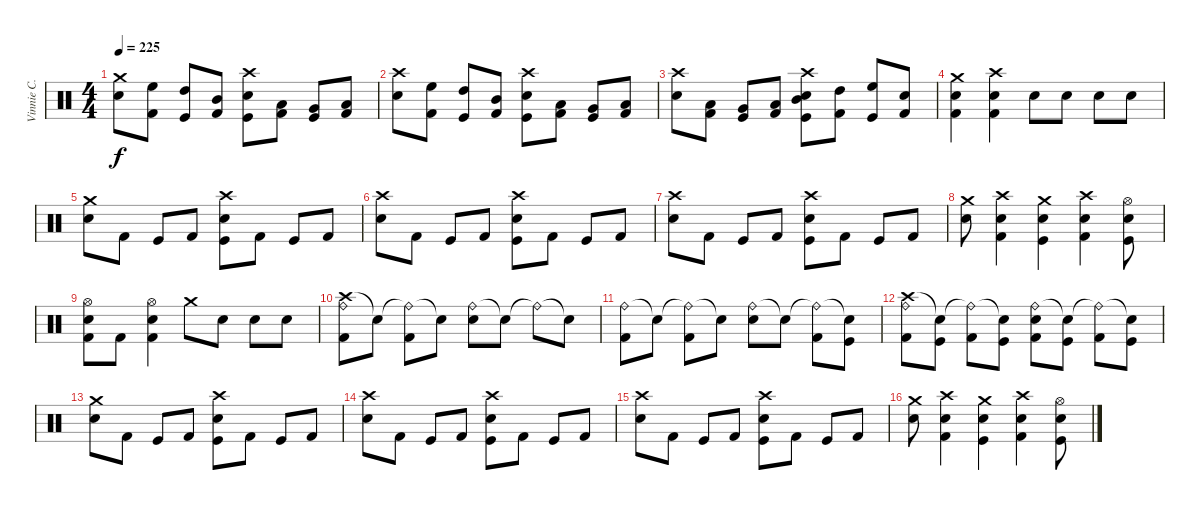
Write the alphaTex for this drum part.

\track ("Vinnie C." "Vinnie C.") {instrument percussion}
\staff {score}
\articulation defaults
\ts (4 4)
\tempo 225
\clef neutral
\ks c
("Crash medium (hit)" "Electric Snare (hit)").8{dy f} ("High Floor Tom (hit)" "Kick (hit) 2").8 ("High Tom (hit)" "Kick (hit)").8 ("Mid Tom (hit)" "Kick (hit) 2").8 ("Crash high (hit)" "Electric Snare (hit)" "Kick (hit)").8 ("Low Tom (hit)" "Kick (hit) 2").8 ("Very Low Tom (hit)" "Kick (hit)").8 ("Low Floor Tom (hit)" "Kick (hit) 2").8 |
("Crash high (hit)" "Electric Snare (hit)").8 ("High Floor Tom (hit)" "Kick (hit) 2").8 ("High Tom (hit)" "Kick (hit)").8 ("Mid Tom (hit)" "Kick (hit) 2").8 ("Crash high (hit)" "Electric Snare (hit)" "Kick (hit)").8 ("Low Tom (hit)" "Kick (hit) 2").8 ("Very Low Tom (hit)" "Kick (hit)").8 ("Low Floor Tom (hit)" "Kick (hit) 2").8 |
("Crash high (hit)" "Electric Snare (hit)").8 ("Low Floor Tom (hit)" "Kick (hit) 2").8 ("Very Low Tom (hit)" "Kick (hit)").8 ("Low Tom (hit)" "Kick (hit) 2").8 ("Crash high (hit)" "Mid Tom (hit)" "Electric Snare (hit)" "Kick (hit)").8 ("High Tom (hit)" "Kick (hit) 2").8 ("High Floor Tom (hit)" "Kick (hit)").8 ("Electric Snare (hit)" "Kick (hit) 2").8 |
("Crash medium (hit)" "Electric Snare (hit)" "Kick (hit) 2").4 ("Crash high (hit)" "Electric Snare (hit)" "Kick (hit) 2").4 "Electric Snare (hit)".8 "Electric Snare (hit)".8 "Electric Snare (hit)".8 "Electric Snare (hit)".8 |
("Crash medium (hit)" "Electric Snare (hit)").8 "Kick (hit) 2".8 "Kick (hit)".8 "Kick (hit) 2".8 ("Crash high (hit)" "Electric Snare (hit)" "Kick (hit)").8 "Kick (hit) 2".8 "Kick (hit)".8 "Kick (hit) 2".8 |
("Crash high (hit)" "Electric Snare (hit)").8 "Kick (hit) 2".8 "Kick (hit)".8 "Kick (hit) 2".8 ("Crash high (hit)" "Electric Snare (hit)" "Kick (hit)").8 "Kick (hit) 2".8 "Kick (hit)".8 "Kick (hit) 2".8 |
("Crash high (hit)" "Electric Snare (hit)").8 "Kick (hit) 2".8 "Kick (hit)".8 "Kick (hit) 2".8 ("Crash high (hit)" "Electric Snare (hit)" "Kick (hit)").8 "Kick (hit) 2".8 "Kick (hit)".8 "Kick (hit) 2".8 |
("Crash medium (hit)" "Electric Snare (hit)").8 ("Crash high (hit)" "Electric Snare (hit)" "Kick (hit) 2").4 ("Crash medium (hit)" "Electric Snare (hit)" "Kick (hit)").4 ("Crash high (hit)" "Electric Snare (hit)" "Kick (hit) 2").4 ("Hi-Hat (open)" "Electric Snare (hit)" "Kick (hit)").8 |
("Hi-Hat (open)" "Electric Snare (hit)" "Kick (hit) 2").8 "Kick (hit) 2".8 ("Hi-Hat (open)" "Electric Snare (hit)" "Kick (hit) 2").4 "Crash medium (hit)".8 "Electric Snare (hit)".8 "Electric Snare (hit)".8 "Electric Snare (hit)".8 |
("Crash high (hit)" "Ride (bell)" "Kick (hit) 2").8 "Snare (hit)"{t}.8 ("Ride (bell)"{t} "Kick (hit) 2").8 "Snare (hit)"{t}.8 ("Ride (bell)" "Electric Snare (hit)").8 "Snare (hit)"{t}.8 "Ride (bell)"{t}.8 "Snare (hit)"{t}.8 |
("Ride (bell)" "Kick (hit) 2").8 "Snare (hit)"{t}.8 ("Ride (bell)"{t} "Kick (hit) 2").8 "Snare (hit)"{t}.8 ("Ride (bell)" "Electric Snare (hit)").8 "Snare (hit)"{t}.8 ("Ride (bell)"{t} "Kick (hit) 2").8 ("Snare (hit)"{t} "Kick (hit)").8 |
("Crash high (hit)" "Ride (bell)" "Kick (hit) 2").8 ("Snare (hit)"{t} "Kick (hit)").8 ("Ride (bell)"{t} "Kick (hit) 2").8 ("Snare (hit)"{t} "Kick (hit)").8 ("Ride (bell)" "Electric Snare (hit)" "Kick (hit) 2").8 ("Snare (hit)"{t} "Kick (hit)").8 ("Ride (bell)"{t} "Kick (hit) 2").8 ("Snare (hit)"{t} "Kick (hit)").8 |
("Crash medium (hit)" "Electric Snare (hit)").8 "Kick (hit) 2".8 "Kick (hit)".8 "Kick (hit) 2".8 ("Crash high (hit)" "Electric Snare (hit)" "Kick (hit)").8 "Kick (hit) 2".8 "Kick (hit)".8 "Kick (hit) 2".8 |
("Crash high (hit)" "Electric Snare (hit)").8 "Kick (hit) 2".8 "Kick (hit)".8 "Kick (hit) 2".8 ("Crash high (hit)" "Electric Snare (hit)" "Kick (hit)").8 "Kick (hit) 2".8 "Kick (hit)".8 "Kick (hit) 2".8 |
("Crash high (hit)" "Electric Snare (hit)").8 "Kick (hit) 2".8 "Kick (hit)".8 "Kick (hit) 2".8 ("Crash high (hit)" "Electric Snare (hit)" "Kick (hit)").8 "Kick (hit) 2".8 "Kick (hit)".8 "Kick (hit) 2".8 |
("Crash medium (hit)" "Electric Snare (hit)").8 ("Crash high (hit)" "Electric Snare (hit)" "Kick (hit) 2").4 ("Crash medium (hit)" "Electric Snare (hit)" "Kick (hit)").4 ("Crash high (hit)" "Electric Snare (hit)" "Kick (hit) 2").4 ("Hi-Hat (open)" "Electric Snare (hit)" "Kick (hit)").8
